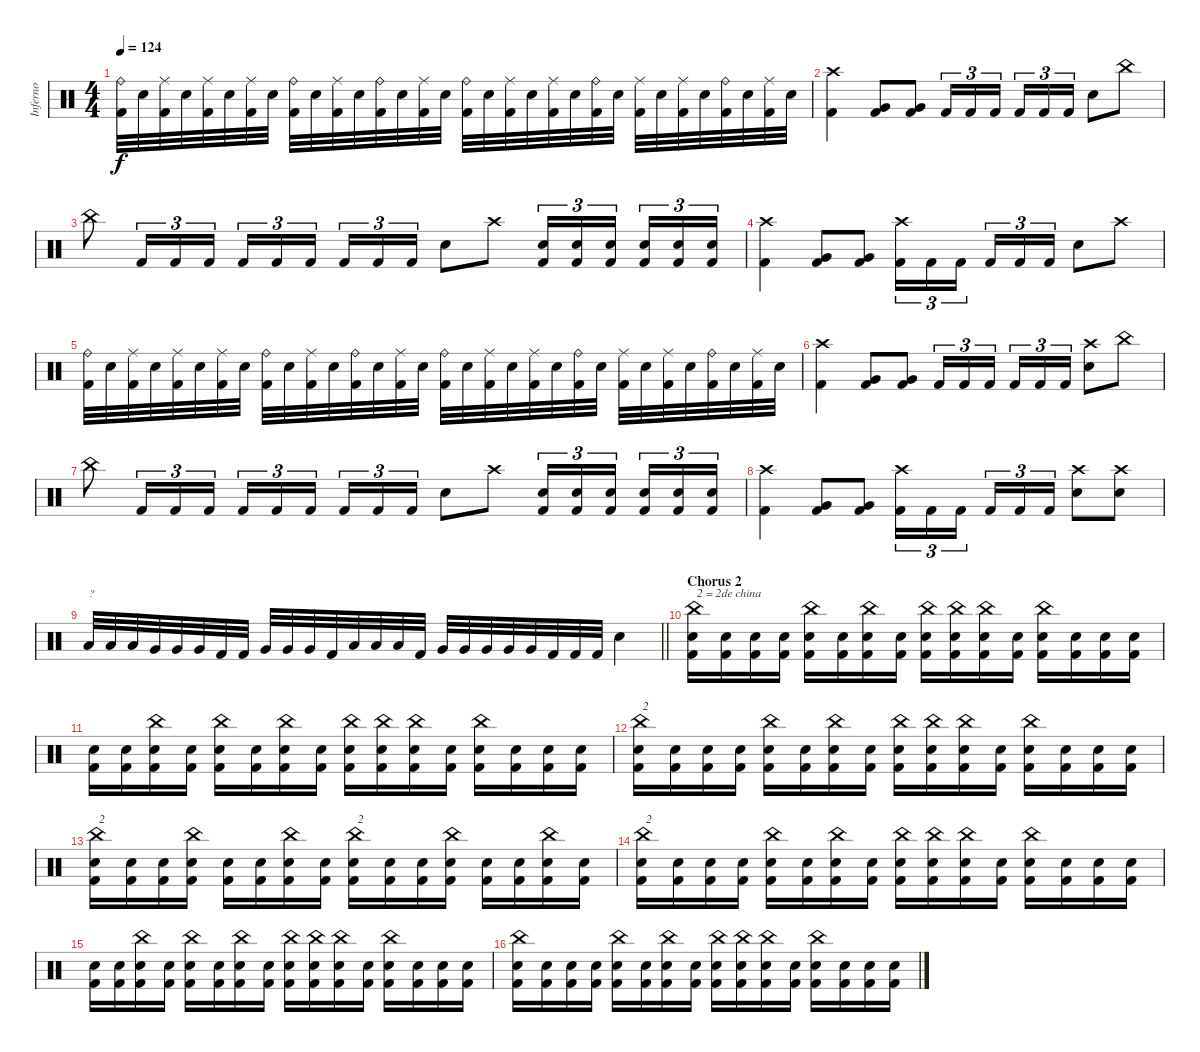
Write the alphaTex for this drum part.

\track ("Inferno" "Inferno") {instrument percussion}
\staff {score}
\articulation defaults
\ts (4 4)
\tempo 124
\clef neutral
\ks c
("Ride (bell)" "Kick (hit) 2").32{dy f} "Electric Snare (hit)".32 ("Ride (middle)" "Kick (hit) 2").32 "Electric Snare (hit)".32 ("Ride (middle)" "Kick (hit) 2").32 "Electric Snare (hit)".32 ("Ride (middle)" "Kick (hit) 2").32 "Electric Snare (hit)".32 ("Ride (bell)" "Kick (hit) 2").32 "Electric Snare (hit)".32 ("Ride (middle)" "Kick (hit) 2").32 "Electric Snare (hit)".32 ("Ride (bell)" "Kick (hit) 2").32 "Electric Snare (hit)".32 ("Ride (middle)" "Kick (hit) 2").32 "Electric Snare (hit)".32 ("Ride (bell)" "Kick (hit) 2").32 "Electric Snare (hit)".32 ("Ride (middle)" "Kick (hit) 2").32 "Electric Snare (hit)".32 ("Ride (middle)" "Kick (hit) 2").32 "Electric Snare (hit)".32 ("Ride (bell)" "Kick (hit) 2").32 "Electric Snare (hit)".32 ("Ride (middle)" "Kick (hit) 2").32 "Electric Snare (hit)".32 ("Ride (middle)" "Kick (hit) 2").32 "Electric Snare (hit)".32 ("Ride (bell)" "Kick (hit) 2").32 "Electric Snare (hit)".32 ("Ride (middle)" "Kick (hit) 2").32 "Electric Snare (hit)".32 |
("Crash high (hit)" "Kick (hit) 2").4 ("Very Low Tom (hit)" "Kick (hit) 2").8 ("Very Low Tom (hit)" "Kick (hit) 2").8 "Kick (hit) 2".16{tu (3 2)} "Kick (hit) 2".16{tu (3 2)} "Kick (hit) 2".16{tu (3 2) beam splitsecondary} "Kick (hit) 2".16{tu (3 2)} "Kick (hit) 2".16{tu (3 2)} "Kick (hit) 2".16{tu (3 2)} "Electric Snare (hit)".8 "China (hit)".8 |
"China (hit)".8 "Kick (hit) 2".16{tu (3 2)} "Kick (hit) 2".16{tu (3 2)} "Kick (hit) 2".16{tu (3 2)} "Kick (hit) 2".16{tu (3 2)} "Kick (hit) 2".16{tu (3 2)} "Kick (hit) 2".16{tu (3 2) beam splitsecondary} "Kick (hit) 2".16{tu (3 2)} "Kick (hit) 2".16{tu (3 2)} "Kick (hit) 2".16{tu (3 2)} "Electric Snare (hit)".8 "Crash high (hit)".8 ("Electric Snare (hit)" "Kick (hit) 2").16{tu (3 2)} ("Electric Snare (hit)" "Kick (hit) 2").16{tu (3 2)} ("Electric Snare (hit)" "Kick (hit) 2").16{tu (3 2) beam splitsecondary} ("Electric Snare (hit)" "Kick (hit) 2").16{tu (3 2)} ("Electric Snare (hit)" "Kick (hit) 2").16{tu (3 2)} ("Electric Snare (hit)" "Kick (hit) 2").16{tu (3 2)} |
("Crash high (hit)" "Kick (hit) 2").4 ("Very Low Tom (hit)" "Kick (hit) 2").8 ("Very Low Tom (hit)" "Kick (hit) 2").8 ("Crash high (hit)" "Kick (hit) 2").16{tu (3 2)} "Kick (hit) 2".16{tu (3 2)} "Kick (hit) 2".16{tu (3 2) beam splitsecondary} "Kick (hit) 2".16{tu (3 2)} "Kick (hit) 2".16{tu (3 2)} "Kick (hit) 2".16{tu (3 2)} "Electric Snare (hit)".8 "Crash high (hit)".8 |
("Ride (bell)" "Kick (hit) 2").32 "Electric Snare (hit)".32 ("Ride (middle)" "Kick (hit) 2").32 "Electric Snare (hit)".32 ("Ride (middle)" "Kick (hit) 2").32 "Electric Snare (hit)".32 ("Ride (middle)" "Kick (hit) 2").32 "Electric Snare (hit)".32 ("Ride (bell)" "Kick (hit) 2").32 "Electric Snare (hit)".32 ("Ride (middle)" "Kick (hit) 2").32 "Electric Snare (hit)".32 ("Ride (bell)" "Kick (hit) 2").32 "Electric Snare (hit)".32 ("Ride (middle)" "Kick (hit) 2").32 "Electric Snare (hit)".32 ("Ride (bell)" "Kick (hit) 2").32 "Electric Snare (hit)".32 ("Ride (middle)" "Kick (hit) 2").32 "Electric Snare (hit)".32 ("Ride (middle)" "Kick (hit) 2").32 "Electric Snare (hit)".32 ("Ride (bell)" "Kick (hit) 2").32 "Electric Snare (hit)".32 ("Ride (middle)" "Kick (hit) 2").32 "Electric Snare (hit)".32 ("Ride (middle)" "Kick (hit) 2").32 "Electric Snare (hit)".32 ("Ride (bell)" "Kick (hit) 2").32 "Electric Snare (hit)".32 ("Ride (middle)" "Kick (hit) 2").32 "Electric Snare (hit)".32 |
("Crash high (hit)" "Kick (hit) 2").4 ("Very Low Tom (hit)" "Kick (hit) 2").8 ("Very Low Tom (hit)" "Kick (hit) 2").8 "Kick (hit) 2".16{tu (3 2)} "Kick (hit) 2".16{tu (3 2)} "Kick (hit) 2".16{tu (3 2) beam splitsecondary} "Kick (hit) 2".16{tu (3 2)} "Kick (hit) 2".16{tu (3 2)} "Kick (hit) 2".16{tu (3 2)} ("Crash high (hit)" "Electric Snare (hit)").8 "China (hit)".8 |
"China (hit)".8 "Kick (hit) 2".16{tu (3 2)} "Kick (hit) 2".16{tu (3 2)} "Kick (hit) 2".16{tu (3 2)} "Kick (hit) 2".16{tu (3 2)} "Kick (hit) 2".16{tu (3 2)} "Kick (hit) 2".16{tu (3 2) beam splitsecondary} "Kick (hit) 2".16{tu (3 2)} "Kick (hit) 2".16{tu (3 2)} "Kick (hit) 2".16{tu (3 2)} "Electric Snare (hit)".8 "Crash high (hit)".8 ("Electric Snare (hit)" "Kick (hit) 2").16{tu (3 2)} ("Electric Snare (hit)" "Kick (hit) 2").16{tu (3 2)} ("Electric Snare (hit)" "Kick (hit) 2").16{tu (3 2) beam splitsecondary} ("Electric Snare (hit)" "Kick (hit) 2").16{tu (3 2)} ("Electric Snare (hit)" "Kick (hit) 2").16{tu (3 2)} ("Electric Snare (hit)" "Kick (hit) 2").16{tu (3 2)} |
("Crash high (hit)" "Kick (hit) 2").4 ("Very Low Tom (hit)" "Kick (hit) 2").8 ("Very Low Tom (hit)" "Kick (hit) 2").8 ("Crash high (hit)" "Kick (hit) 2").16{tu (3 2)} "Kick (hit) 2".16{tu (3 2)} "Kick (hit) 2".16{tu (3 2) beam splitsecondary} "Kick (hit) 2".16{tu (3 2)} "Kick (hit) 2".16{tu (3 2)} "Kick (hit) 2".16{tu (3 2)} ("Crash high (hit)" "Electric Snare (hit)").8 ("Crash high (hit)" "Electric Snare (hit)").8 |
\barLineRight lightlight "Low Tom (hit)".32{txt "?"} "Low Tom (hit)".32 "Low Tom (hit)".32 "Very Low Tom (hit)".32 "Very Low Tom (hit)".32 "Very Low Tom (hit)".32 "Kick (hit) 2".32 "Kick (hit) 2".32 "Very Low Tom (hit)".32 "Very Low Tom (hit)".32 "Very Low Tom (hit)".32 "Kick (hit) 2".32 "Low Floor Tom (hit)".32 "Low Floor Tom (hit)".32 "Low Floor Tom (hit)".32 "Kick (hit) 2".32 "Very Low Tom (hit)".32 "Very Low Tom (hit)".32 "Very Low Tom (hit)".32 "Very Low Tom (hit)".32 "Very Low Tom (hit)".32 "Kick (hit) 2".32 "Kick (hit) 2".32 "Kick (hit) 2".32 "Electric Snare (hit)".4
|
\section ("" "Chorus 2")
("China (hit)" "Electric Snare (hit)" "Kick (hit) 2").16{txt "2 = 2de china"} ("Electric Snare (hit)" "Kick (hit) 2").16 ("Electric Snare (hit)" "Kick (hit) 2").16 ("Electric Snare (hit)" "Kick (hit) 2").16 ("China (hit)" "Electric Snare (hit)" "Kick (hit) 2").16 ("Electric Snare (hit)" "Kick (hit) 2").16 ("China (hit)" "Electric Snare (hit)" "Kick (hit) 2").16 ("Electric Snare (hit)" "Kick (hit) 2").16 ("China (hit)" "Electric Snare (hit)" "Kick (hit) 2").16 ("China (hit)" "Electric Snare (hit)" "Kick (hit) 2").16 ("China (hit)" "Electric Snare (hit)" "Kick (hit) 2").16 ("Electric Snare (hit)" "Kick (hit) 2").16 ("China (hit)" "Electric Snare (hit)" "Kick (hit) 2").16 ("Electric Snare (hit)" "Kick (hit) 2").16 ("Electric Snare (hit)" "Kick (hit) 2").16 ("Electric Snare (hit)" "Kick (hit) 2").16 |
("Electric Snare (hit)" "Kick (hit) 2").16 ("Electric Snare (hit)" "Kick (hit) 2").16 ("China (hit)" "Electric Snare (hit)" "Kick (hit) 2").16 ("Electric Snare (hit)" "Kick (hit) 2").16 ("China (hit)" "Electric Snare (hit)" "Kick (hit) 2").16 ("Electric Snare (hit)" "Kick (hit) 2").16 ("China (hit)" "Electric Snare (hit)" "Kick (hit) 2").16 ("Electric Snare (hit)" "Kick (hit) 2").16 ("China (hit)" "Electric Snare (hit)" "Kick (hit) 2").16 ("China (hit)" "Electric Snare (hit)" "Kick (hit) 2").16 ("China (hit)" "Electric Snare (hit)" "Kick (hit) 2").16 ("Electric Snare (hit)" "Kick (hit) 2").16 ("China (hit)" "Electric Snare (hit)" "Kick (hit) 2").16 ("Electric Snare (hit)" "Kick (hit) 2").16 ("Electric Snare (hit)" "Kick (hit) 2").16 ("Electric Snare (hit)" "Kick (hit) 2").16 |
("China (hit)" "Electric Snare (hit)" "Kick (hit) 2").16{txt "2"} ("Electric Snare (hit)" "Kick (hit) 2").16 ("Electric Snare (hit)" "Kick (hit) 2").16 ("Electric Snare (hit)" "Kick (hit) 2").16 ("China (hit)" "Electric Snare (hit)" "Kick (hit) 2").16 ("Electric Snare (hit)" "Kick (hit) 2").16 ("China (hit)" "Electric Snare (hit)" "Kick (hit) 2").16 ("Electric Snare (hit)" "Kick (hit) 2").16 ("China (hit)" "Electric Snare (hit)" "Kick (hit) 2").16 ("China (hit)" "Electric Snare (hit)" "Kick (hit) 2").16 ("China (hit)" "Electric Snare (hit)" "Kick (hit) 2").16 ("Electric Snare (hit)" "Kick (hit) 2").16 ("China (hit)" "Electric Snare (hit)" "Kick (hit) 2").16 ("Electric Snare (hit)" "Kick (hit) 2").16 ("Electric Snare (hit)" "Kick (hit) 2").16 ("Electric Snare (hit)" "Kick (hit) 2").16 |
("China (hit)" "Electric Snare (hit)" "Kick (hit) 2").16{txt "2"} ("Electric Snare (hit)" "Kick (hit) 2").16 ("Electric Snare (hit)" "Kick (hit) 2").16 ("China (hit)" "Electric Snare (hit)" "Kick (hit) 2").16 ("Electric Snare (hit)" "Kick (hit) 2").16 ("Electric Snare (hit)" "Kick (hit) 2").16 ("China (hit)" "Electric Snare (hit)" "Kick (hit) 2").16 ("Electric Snare (hit)" "Kick (hit) 2").16 ("China (hit)" "Electric Snare (hit)" "Kick (hit) 2").16{txt "2"} ("Electric Snare (hit)" "Kick (hit) 2").16 ("Electric Snare (hit)" "Kick (hit) 2").16 ("China (hit)" "Electric Snare (hit)" "Kick (hit) 2").16 ("Electric Snare (hit)" "Kick (hit) 2").16 ("Electric Snare (hit)" "Kick (hit) 2").16 ("China (hit)" "Electric Snare (hit)" "Kick (hit) 2").16 ("Electric Snare (hit)" "Kick (hit) 2").16 |
("China (hit)" "Electric Snare (hit)" "Kick (hit) 2").16{txt "2"} ("Electric Snare (hit)" "Kick (hit) 2").16 ("Electric Snare (hit)" "Kick (hit) 2").16 ("Electric Snare (hit)" "Kick (hit) 2").16 ("China (hit)" "Electric Snare (hit)" "Kick (hit) 2").16 ("Electric Snare (hit)" "Kick (hit) 2").16 ("China (hit)" "Electric Snare (hit)" "Kick (hit) 2").16 ("Electric Snare (hit)" "Kick (hit) 2").16 ("China (hit)" "Electric Snare (hit)" "Kick (hit) 2").16 ("China (hit)" "Electric Snare (hit)" "Kick (hit) 2").16 ("China (hit)" "Electric Snare (hit)" "Kick (hit) 2").16 ("Electric Snare (hit)" "Kick (hit) 2").16 ("China (hit)" "Electric Snare (hit)" "Kick (hit) 2").16 ("Electric Snare (hit)" "Kick (hit) 2").16 ("Electric Snare (hit)" "Kick (hit) 2").16 ("Electric Snare (hit)" "Kick (hit) 2").16 |
("Electric Snare (hit)" "Kick (hit) 2").16 ("Electric Snare (hit)" "Kick (hit) 2").16 ("China (hit)" "Electric Snare (hit)" "Kick (hit) 2").16 ("Electric Snare (hit)" "Kick (hit) 2").16 ("China (hit)" "Electric Snare (hit)" "Kick (hit) 2").16 ("Electric Snare (hit)" "Kick (hit) 2").16 ("China (hit)" "Electric Snare (hit)" "Kick (hit) 2").16 ("Electric Snare (hit)" "Kick (hit) 2").16 ("China (hit)" "Electric Snare (hit)" "Kick (hit) 2").16 ("China (hit)" "Electric Snare (hit)" "Kick (hit) 2").16 ("China (hit)" "Electric Snare (hit)" "Kick (hit) 2").16 ("Electric Snare (hit)" "Kick (hit) 2").16 ("China (hit)" "Electric Snare (hit)" "Kick (hit) 2").16 ("Electric Snare (hit)" "Kick (hit) 2").16 ("Electric Snare (hit)" "Kick (hit) 2").16 ("Electric Snare (hit)" "Kick (hit) 2").16 |
("China (hit)" "Electric Snare (hit)" "Kick (hit) 2").16 ("Electric Snare (hit)" "Kick (hit) 2").16 ("Electric Snare (hit)" "Kick (hit) 2").16 ("Electric Snare (hit)" "Kick (hit) 2").16 ("China (hit)" "Electric Snare (hit)" "Kick (hit) 2").16 ("Electric Snare (hit)" "Kick (hit) 2").16 ("China (hit)" "Electric Snare (hit)" "Kick (hit) 2").16 ("Electric Snare (hit)" "Kick (hit) 2").16 ("China (hit)" "Electric Snare (hit)" "Kick (hit) 2").16 ("China (hit)" "Electric Snare (hit)" "Kick (hit) 2").16 ("China (hit)" "Electric Snare (hit)" "Kick (hit) 2").16 ("Electric Snare (hit)" "Kick (hit) 2").16 ("China (hit)" "Electric Snare (hit)" "Kick (hit) 2").16 ("Electric Snare (hit)" "Kick (hit) 2").16 ("Electric Snare (hit)" "Kick (hit) 2").16 ("Electric Snare (hit)" "Kick (hit) 2").16
